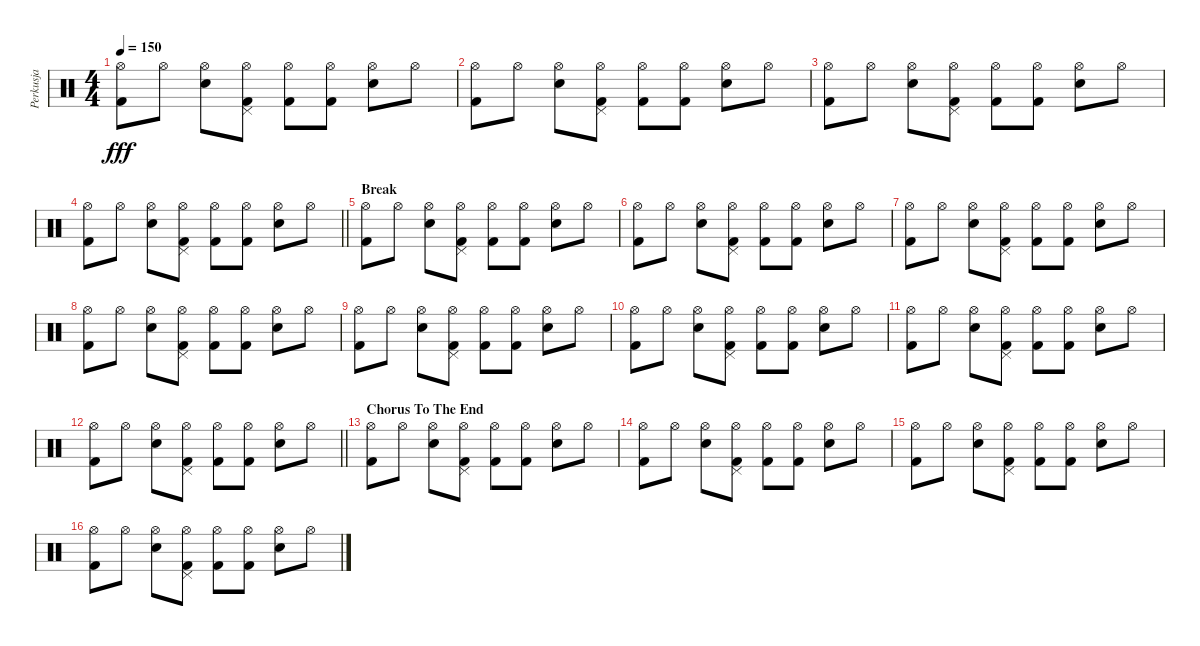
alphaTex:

\track ("Perkusja" "Perkusja") {instrument percussion}
\staff {score}
\articulation defaults
\ts (4 4)
\tempo 150
\clef neutral
\ks c
("Hi-Hat (open)" "Kick (hit) 2").8{dy fff} "Hi-Hat (open)".8 ("Hi-Hat (open)" "Electric Snare (hit)").8 ("Hi-Hat (open)" "Kick (hit) 2" "Pedal Hi-Hat (hit)").8 ("Hi-Hat (open)" "Kick (hit) 2").8 ("Hi-Hat (open)" "Kick (hit) 2").8 ("Hi-Hat (open)" "Electric Snare (hit)").8 "Hi-Hat (open)".8 |
("Hi-Hat (open)" "Kick (hit) 2").8 "Hi-Hat (open)".8 ("Hi-Hat (open)" "Electric Snare (hit)").8 ("Hi-Hat (open)" "Kick (hit) 2" "Pedal Hi-Hat (hit)").8 ("Hi-Hat (open)" "Kick (hit) 2").8 ("Hi-Hat (open)" "Kick (hit) 2").8 ("Hi-Hat (open)" "Electric Snare (hit)").8 "Hi-Hat (open)".8 |
("Hi-Hat (open)" "Kick (hit) 2").8 "Hi-Hat (open)".8 ("Hi-Hat (open)" "Electric Snare (hit)").8 ("Hi-Hat (open)" "Kick (hit) 2" "Pedal Hi-Hat (hit)").8 ("Hi-Hat (open)" "Kick (hit) 2").8 ("Hi-Hat (open)" "Kick (hit) 2").8 ("Hi-Hat (open)" "Electric Snare (hit)").8 "Hi-Hat (open)".8 |
\barLineRight lightlight
("Hi-Hat (open)" "Kick (hit) 2").8 "Hi-Hat (open)".8 ("Hi-Hat (open)" "Electric Snare (hit)").8 ("Hi-Hat (open)" "Kick (hit) 2" "Pedal Hi-Hat (hit)").8 ("Hi-Hat (open)" "Kick (hit) 2").8 ("Hi-Hat (open)" "Kick (hit) 2").8 ("Hi-Hat (open)" "Electric Snare (hit)").8 "Hi-Hat (open)".8 |
\section ("" "Break")
("Hi-Hat (open)" "Kick (hit) 2").8 "Hi-Hat (open)".8 ("Hi-Hat (open)" "Electric Snare (hit)").8 ("Hi-Hat (open)" "Kick (hit) 2" "Pedal Hi-Hat (hit)").8 ("Hi-Hat (open)" "Kick (hit) 2").8 ("Hi-Hat (open)" "Kick (hit) 2").8 ("Hi-Hat (open)" "Electric Snare (hit)").8 "Hi-Hat (open)".8 |
("Hi-Hat (open)" "Kick (hit) 2").8 "Hi-Hat (open)".8 ("Hi-Hat (open)" "Electric Snare (hit)").8 ("Hi-Hat (open)" "Kick (hit) 2" "Pedal Hi-Hat (hit)").8 ("Hi-Hat (open)" "Kick (hit) 2").8 ("Hi-Hat (open)" "Kick (hit) 2").8 ("Hi-Hat (open)" "Electric Snare (hit)").8 "Hi-Hat (open)".8 |
("Hi-Hat (open)" "Kick (hit) 2").8 "Hi-Hat (open)".8 ("Hi-Hat (open)" "Electric Snare (hit)").8 ("Hi-Hat (open)" "Kick (hit) 2" "Pedal Hi-Hat (hit)").8 ("Hi-Hat (open)" "Kick (hit) 2").8 ("Hi-Hat (open)" "Kick (hit) 2").8 ("Hi-Hat (open)" "Electric Snare (hit)").8 "Hi-Hat (open)".8 |
("Hi-Hat (open)" "Kick (hit) 2").8 "Hi-Hat (open)".8 ("Hi-Hat (open)" "Electric Snare (hit)").8 ("Hi-Hat (open)" "Kick (hit) 2" "Pedal Hi-Hat (hit)").8 ("Hi-Hat (open)" "Kick (hit) 2").8 ("Hi-Hat (open)" "Kick (hit) 2").8 ("Hi-Hat (open)" "Electric Snare (hit)").8 "Hi-Hat (open)".8 |
("Hi-Hat (open)" "Kick (hit) 2").8 "Hi-Hat (open)".8 ("Hi-Hat (open)" "Electric Snare (hit)").8 ("Hi-Hat (open)" "Kick (hit) 2" "Pedal Hi-Hat (hit)").8 ("Hi-Hat (open)" "Kick (hit) 2").8 ("Hi-Hat (open)" "Kick (hit) 2").8 ("Hi-Hat (open)" "Electric Snare (hit)").8 "Hi-Hat (open)".8 |
("Hi-Hat (open)" "Kick (hit) 2").8 "Hi-Hat (open)".8 ("Hi-Hat (open)" "Electric Snare (hit)").8 ("Hi-Hat (open)" "Kick (hit) 2" "Pedal Hi-Hat (hit)").8 ("Hi-Hat (open)" "Kick (hit) 2").8 ("Hi-Hat (open)" "Kick (hit) 2").8 ("Hi-Hat (open)" "Electric Snare (hit)").8 "Hi-Hat (open)".8 |
("Hi-Hat (open)" "Kick (hit) 2").8 "Hi-Hat (open)".8 ("Hi-Hat (open)" "Electric Snare (hit)").8 ("Hi-Hat (open)" "Kick (hit) 2" "Pedal Hi-Hat (hit)").8 ("Hi-Hat (open)" "Kick (hit) 2").8 ("Hi-Hat (open)" "Kick (hit) 2").8 ("Hi-Hat (open)" "Electric Snare (hit)").8 "Hi-Hat (open)".8 |
\barLineRight lightlight
("Hi-Hat (open)" "Kick (hit) 2").8 "Hi-Hat (open)".8 ("Hi-Hat (open)" "Electric Snare (hit)").8 ("Hi-Hat (open)" "Kick (hit) 2" "Pedal Hi-Hat (hit)").8 ("Hi-Hat (open)" "Kick (hit) 2").8 ("Hi-Hat (open)" "Kick (hit) 2").8 ("Hi-Hat (open)" "Electric Snare (hit)").8 "Hi-Hat (open)".8 |
\section ("" "Chorus To The End")
("Hi-Hat (open)" "Kick (hit) 2").8 "Hi-Hat (open)".8 ("Hi-Hat (open)" "Electric Snare (hit)").8 ("Hi-Hat (open)" "Kick (hit) 2" "Pedal Hi-Hat (hit)").8 ("Hi-Hat (open)" "Kick (hit) 2").8 ("Hi-Hat (open)" "Kick (hit) 2").8 ("Hi-Hat (open)" "Electric Snare (hit)").8 "Hi-Hat (open)".8 |
("Hi-Hat (open)" "Kick (hit) 2").8 "Hi-Hat (open)".8 ("Hi-Hat (open)" "Electric Snare (hit)").8 ("Hi-Hat (open)" "Kick (hit) 2" "Pedal Hi-Hat (hit)").8 ("Hi-Hat (open)" "Kick (hit) 2").8 ("Hi-Hat (open)" "Kick (hit) 2").8 ("Hi-Hat (open)" "Electric Snare (hit)").8 "Hi-Hat (open)".8 |
("Hi-Hat (open)" "Kick (hit) 2").8 "Hi-Hat (open)".8 ("Hi-Hat (open)" "Electric Snare (hit)").8 ("Hi-Hat (open)" "Kick (hit) 2" "Pedal Hi-Hat (hit)").8 ("Hi-Hat (open)" "Kick (hit) 2").8 ("Hi-Hat (open)" "Kick (hit) 2").8 ("Hi-Hat (open)" "Electric Snare (hit)").8 "Hi-Hat (open)".8 |
("Hi-Hat (open)" "Kick (hit) 2").8 "Hi-Hat (open)".8 ("Hi-Hat (open)" "Electric Snare (hit)").8 ("Hi-Hat (open)" "Kick (hit) 2" "Pedal Hi-Hat (hit)").8 ("Hi-Hat (open)" "Kick (hit) 2").8 ("Hi-Hat (open)" "Kick (hit) 2").8 ("Hi-Hat (open)" "Electric Snare (hit)").8 "Hi-Hat (open)".8
